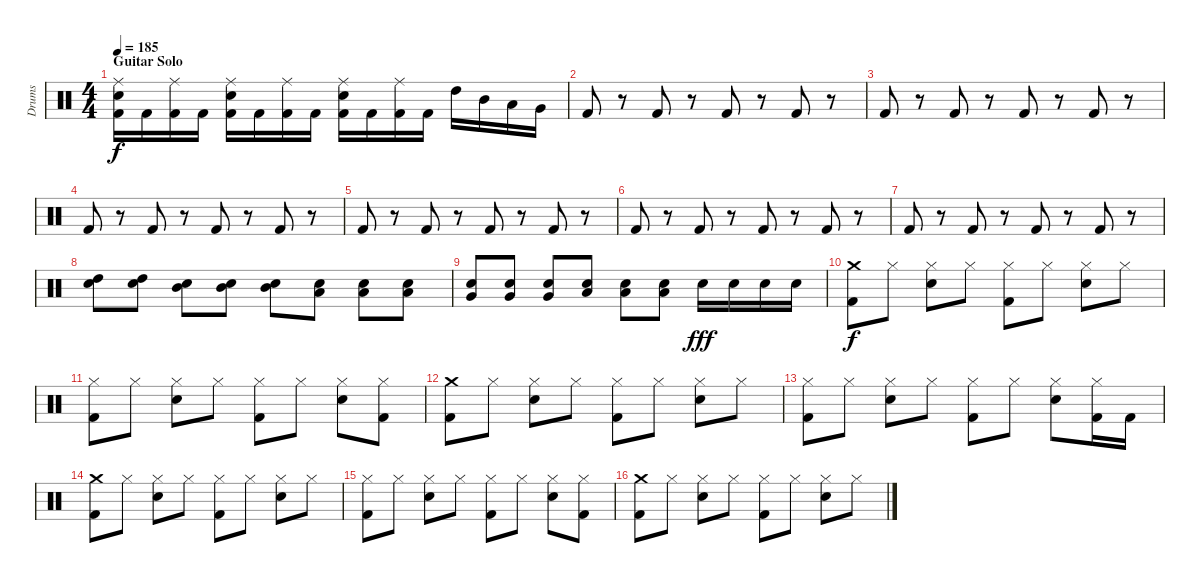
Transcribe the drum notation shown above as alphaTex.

\track ("Drums" "Drums") {instrument percussion}
\staff {score}
\articulation defaults
\ts (4 4)
\section ("" "Guitar Solo")
\tempo 185
\clef neutral
\ks c
("Ride (middle)" "Electric Snare (hit)" "Kick (hit) 2").16{dy f} "Kick (hit) 2".16 ("Ride (middle)" "Kick (hit) 2").16 "Kick (hit) 2".16 ("Ride (middle)" "Electric Snare (hit)" "Kick (hit) 2").16 "Kick (hit) 2".16 ("Ride (middle)" "Kick (hit) 2").16 "Kick (hit) 2".16 ("Ride (middle)" "Electric Snare (hit)" "Kick (hit) 2").16 "Kick (hit) 2".16 ("Ride (middle)" "Kick (hit) 2").16 "Kick (hit) 2".16 "High Tom (hit)".16 "Mid Tom (hit)".16 "Low Tom (hit)".16 "Very Low Tom (hit)".16 |
"Kick (hit) 2".8 r.8 "Kick (hit) 2".8 r.8 "Kick (hit) 2".8 r.8 "Kick (hit) 2".8 r.8 |
"Kick (hit) 2".8 r.8 "Kick (hit) 2".8 r.8 "Kick (hit) 2".8 r.8 "Kick (hit) 2".8 r.8 |
"Kick (hit) 2".8 r.8 "Kick (hit) 2".8 r.8 "Kick (hit) 2".8 r.8 "Kick (hit) 2".8 r.8 |
"Kick (hit) 2".8 r.8 "Kick (hit) 2".8 r.8 "Kick (hit) 2".8 r.8 "Kick (hit) 2".8 r.8 |
"Kick (hit) 2".8 r.8 "Kick (hit) 2".8 r.8 "Kick (hit) 2".8 r.8 "Kick (hit) 2".8 r.8 |
"Kick (hit) 2".8 r.8 "Kick (hit) 2".8 r.8 "Kick (hit) 2".8 r.8 "Kick (hit) 2".8 r.8 |
("High Tom (hit)" "Electric Snare (hit)").8 ("High Tom (hit)" "Electric Snare (hit)").8 ("Mid Tom (hit)" "Electric Snare (hit)").8 ("Mid Tom (hit)" "Electric Snare (hit)").8 ("Mid Tom (hit)" "Electric Snare (hit)").8 ("Low Tom (hit)" "Electric Snare (hit)").8 ("Low Tom (hit)" "Electric Snare (hit)").8 ("Low Tom (hit)" "Electric Snare (hit)").8 |
("Very Low Tom (hit)" "Electric Snare (hit)").8 ("Very Low Tom (hit)" "Electric Snare (hit)").8 ("Very Low Tom (hit)" "Electric Snare (hit)").8 ("Low Floor Tom (hit)" "Electric Snare (hit)").8 ("Low Floor Tom (hit)" "Electric Snare (hit)").8 ("Low Floor Tom (hit)" "Electric Snare (hit)").8 "Electric Snare (hit)".16{dy fff} "Electric Snare (hit)".16 "Electric Snare (hit)".16 "Electric Snare (hit)".16 |
("Crash medium (hit)" "Kick (hit) 2").8{dy f} "Hi-Hat (closed)".8 ("Hi-Hat (closed)" "Electric Snare (hit)").8 "Hi-Hat (closed)".8 ("Hi-Hat (closed)" "Kick (hit) 2").8 "Hi-Hat (closed)".8 ("Hi-Hat (closed)" "Electric Snare (hit)").8 "Hi-Hat (closed)".8 |
("Hi-Hat (closed)" "Kick (hit) 2").8 "Hi-Hat (closed)".8 ("Hi-Hat (closed)" "Electric Snare (hit)").8 "Hi-Hat (closed)".8 ("Hi-Hat (closed)" "Kick (hit) 2").8 "Hi-Hat (closed)".8 ("Hi-Hat (closed)" "Electric Snare (hit)").8 ("Hi-Hat (closed)" "Kick (hit) 2").8 |
("Crash medium (hit)" "Kick (hit) 2").8 "Hi-Hat (closed)".8 ("Hi-Hat (closed)" "Electric Snare (hit)").8 "Hi-Hat (closed)".8 ("Hi-Hat (closed)" "Kick (hit) 2").8 "Hi-Hat (closed)".8 ("Hi-Hat (closed)" "Electric Snare (hit)").8 "Hi-Hat (closed)".8 |
("Hi-Hat (closed)" "Kick (hit) 2").8 "Hi-Hat (closed)".8 ("Hi-Hat (closed)" "Electric Snare (hit)").8 "Hi-Hat (closed)".8 ("Hi-Hat (closed)" "Kick (hit) 2").8 "Hi-Hat (closed)".8 ("Hi-Hat (closed)" "Electric Snare (hit)").8 ("Hi-Hat (closed)" "Kick (hit) 2").16 "Kick (hit) 2".16 |
("Crash medium (hit)" "Kick (hit) 2").8 "Hi-Hat (closed)".8 ("Hi-Hat (closed)" "Electric Snare (hit)").8 "Hi-Hat (closed)".8 ("Hi-Hat (closed)" "Kick (hit) 2").8 "Hi-Hat (closed)".8 ("Hi-Hat (closed)" "Electric Snare (hit)").8 "Hi-Hat (closed)".8 |
("Hi-Hat (closed)" "Kick (hit) 2").8 "Hi-Hat (closed)".8 ("Hi-Hat (closed)" "Electric Snare (hit)").8 "Hi-Hat (closed)".8 ("Hi-Hat (closed)" "Kick (hit) 2").8 "Hi-Hat (closed)".8 ("Hi-Hat (closed)" "Electric Snare (hit)").8 ("Hi-Hat (closed)" "Kick (hit) 2").8 |
("Crash medium (hit)" "Kick (hit) 2").8 "Hi-Hat (closed)".8 ("Hi-Hat (closed)" "Electric Snare (hit)").8 "Hi-Hat (closed)".8 ("Hi-Hat (closed)" "Kick (hit) 2").8 "Hi-Hat (closed)".8 ("Hi-Hat (closed)" "Electric Snare (hit)").8 "Hi-Hat (closed)".8
